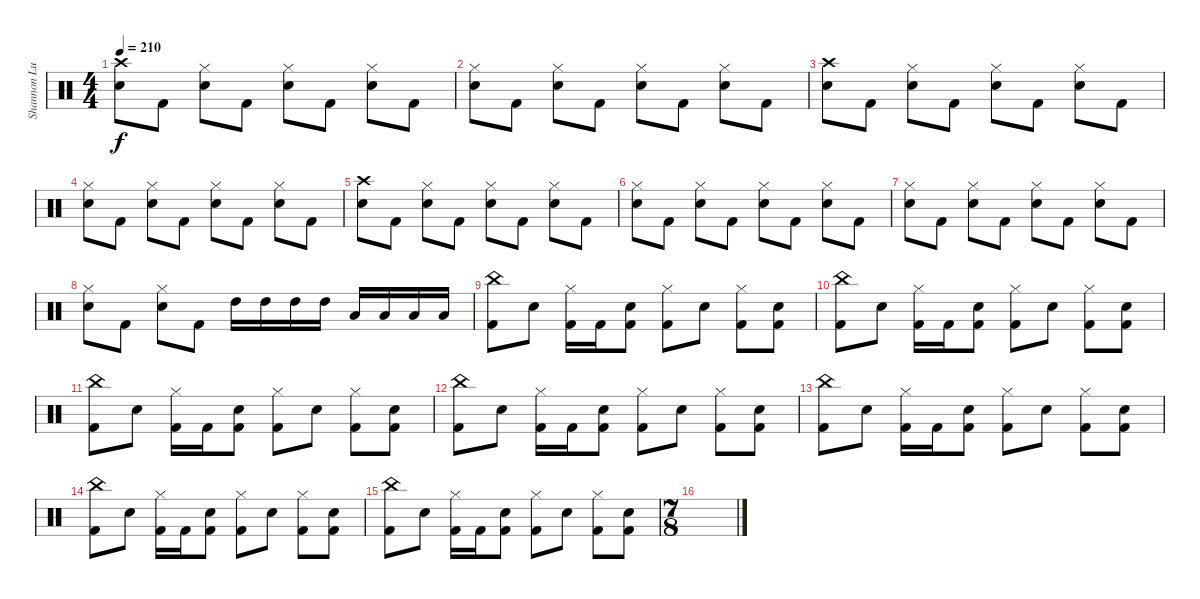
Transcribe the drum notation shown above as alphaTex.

\track ("Shannon Lucas" "Shannon Lu") {instrument percussion}
\staff {score}
\articulation defaults
\ts (4 4)
\tempo 210
\clef neutral
\ks c
("Crash high (hit)" "Electric Snare (hit)").8{dy f} "Kick (hit) 2".8 ("Hi-Hat (closed)" "Electric Snare (hit)").8 "Kick (hit) 2".8 ("Hi-Hat (closed)" "Electric Snare (hit)").8 "Kick (hit) 2".8 ("Hi-Hat (closed)" "Electric Snare (hit)").8 "Kick (hit) 2".8 |
("Hi-Hat (closed)" "Electric Snare (hit)").8 "Kick (hit) 2".8 ("Hi-Hat (closed)" "Electric Snare (hit)").8 "Kick (hit) 2".8 ("Hi-Hat (closed)" "Electric Snare (hit)").8 "Kick (hit) 2".8 ("Hi-Hat (closed)" "Electric Snare (hit)").8 "Kick (hit) 2".8 |
("Crash high (hit)" "Electric Snare (hit)").8 "Kick (hit) 2".8 ("Hi-Hat (closed)" "Electric Snare (hit)").8 "Kick (hit) 2".8 ("Hi-Hat (closed)" "Electric Snare (hit)").8 "Kick (hit) 2".8 ("Hi-Hat (closed)" "Electric Snare (hit)").8 "Kick (hit) 2".8 |
("Hi-Hat (closed)" "Electric Snare (hit)").8 "Kick (hit) 2".8 ("Hi-Hat (closed)" "Electric Snare (hit)").8 "Kick (hit) 2".8 ("Hi-Hat (closed)" "Electric Snare (hit)").8 "Kick (hit) 2".8 ("Hi-Hat (closed)" "Electric Snare (hit)").8 "Kick (hit) 2".8 |
("Crash high (hit)" "Electric Snare (hit)").8 "Kick (hit) 2".8 ("Hi-Hat (closed)" "Electric Snare (hit)").8 "Kick (hit) 2".8 ("Hi-Hat (closed)" "Electric Snare (hit)").8 "Kick (hit) 2".8 ("Hi-Hat (closed)" "Electric Snare (hit)").8 "Kick (hit) 2".8 |
("Hi-Hat (closed)" "Electric Snare (hit)").8 "Kick (hit) 2".8 ("Hi-Hat (closed)" "Electric Snare (hit)").8 "Kick (hit) 2".8 ("Hi-Hat (closed)" "Electric Snare (hit)").8 "Kick (hit) 2".8 ("Hi-Hat (closed)" "Electric Snare (hit)").8 "Kick (hit) 2".8 |
("Hi-Hat (closed)" "Electric Snare (hit)").8 "Kick (hit) 2".8 ("Hi-Hat (closed)" "Electric Snare (hit)").8 "Kick (hit) 2".8 ("Hi-Hat (closed)" "Electric Snare (hit)").8 "Kick (hit) 2".8 ("Hi-Hat (closed)" "Electric Snare (hit)").8 "Kick (hit) 2".8 |
("Hi-Hat (closed)" "Electric Snare (hit)").8 "Kick (hit) 2".8 ("Hi-Hat (closed)" "Electric Snare (hit)").8 "Kick (hit) 2".8 "High Tom (hit)".16 "High Tom (hit)".16 "High Tom (hit)".16 "High Tom (hit)".16 "Low Tom (hit)".16 "Low Tom (hit)".16 "Low Tom (hit)".16 "Low Tom (hit)".16 |
("China (hit)" "Kick (hit) 2").8 "Electric Snare (hit)".8 ("Hi-Hat (closed)" "Kick (hit) 2").16 "Kick (hit) 2".16 ("Electric Snare (hit)" "Kick (hit) 2").8 ("Hi-Hat (closed)" "Kick (hit) 2").8 "Electric Snare (hit)".8 ("Hi-Hat (closed)" "Kick (hit) 2").8 ("Electric Snare (hit)" "Kick (hit) 2").8 |
("China (hit)" "Kick (hit) 2").8 "Electric Snare (hit)".8 ("Hi-Hat (closed)" "Kick (hit) 2").16 "Kick (hit) 2".16 ("Electric Snare (hit)" "Kick (hit) 2").8 ("Hi-Hat (closed)" "Kick (hit) 2").8 "Electric Snare (hit)".8 ("Hi-Hat (closed)" "Kick (hit) 2").8 ("Electric Snare (hit)" "Kick (hit) 2").8 |
("China (hit)" "Kick (hit) 2").8 "Electric Snare (hit)".8 ("Hi-Hat (closed)" "Kick (hit) 2").16 "Kick (hit) 2".16 ("Electric Snare (hit)" "Kick (hit) 2").8 ("Hi-Hat (closed)" "Kick (hit) 2").8 "Electric Snare (hit)".8 ("Hi-Hat (closed)" "Kick (hit) 2").8 ("Electric Snare (hit)" "Kick (hit) 2").8 |
("China (hit)" "Kick (hit) 2").8 "Electric Snare (hit)".8 ("Hi-Hat (closed)" "Kick (hit) 2").16 "Kick (hit) 2".16 ("Electric Snare (hit)" "Kick (hit) 2").8 ("Hi-Hat (closed)" "Kick (hit) 2").8 "Electric Snare (hit)".8 ("Hi-Hat (closed)" "Kick (hit) 2").8 ("Electric Snare (hit)" "Kick (hit) 2").8 |
("China (hit)" "Kick (hit) 2").8 "Electric Snare (hit)".8 ("Hi-Hat (closed)" "Kick (hit) 2").16 "Kick (hit) 2".16 ("Electric Snare (hit)" "Kick (hit) 2").8 ("Hi-Hat (closed)" "Kick (hit) 2").8 "Electric Snare (hit)".8 ("Hi-Hat (closed)" "Kick (hit) 2").8 ("Electric Snare (hit)" "Kick (hit) 2").8 |
("China (hit)" "Kick (hit) 2").8 "Electric Snare (hit)".8 ("Hi-Hat (closed)" "Kick (hit) 2").16 "Kick (hit) 2".16 ("Electric Snare (hit)" "Kick (hit) 2").8 ("Hi-Hat (closed)" "Kick (hit) 2").8 "Electric Snare (hit)".8 ("Hi-Hat (closed)" "Kick (hit) 2").8 ("Electric Snare (hit)" "Kick (hit) 2").8 |
("China (hit)" "Kick (hit) 2").8 "Electric Snare (hit)".8 ("Hi-Hat (closed)" "Kick (hit) 2").16 "Kick (hit) 2".16 ("Electric Snare (hit)" "Kick (hit) 2").8 ("Hi-Hat (closed)" "Kick (hit) 2").8 "Electric Snare (hit)".8 ("Hi-Hat (closed)" "Kick (hit) 2").8 ("Electric Snare (hit)" "Kick (hit) 2").8 |
\ts (7 8)
